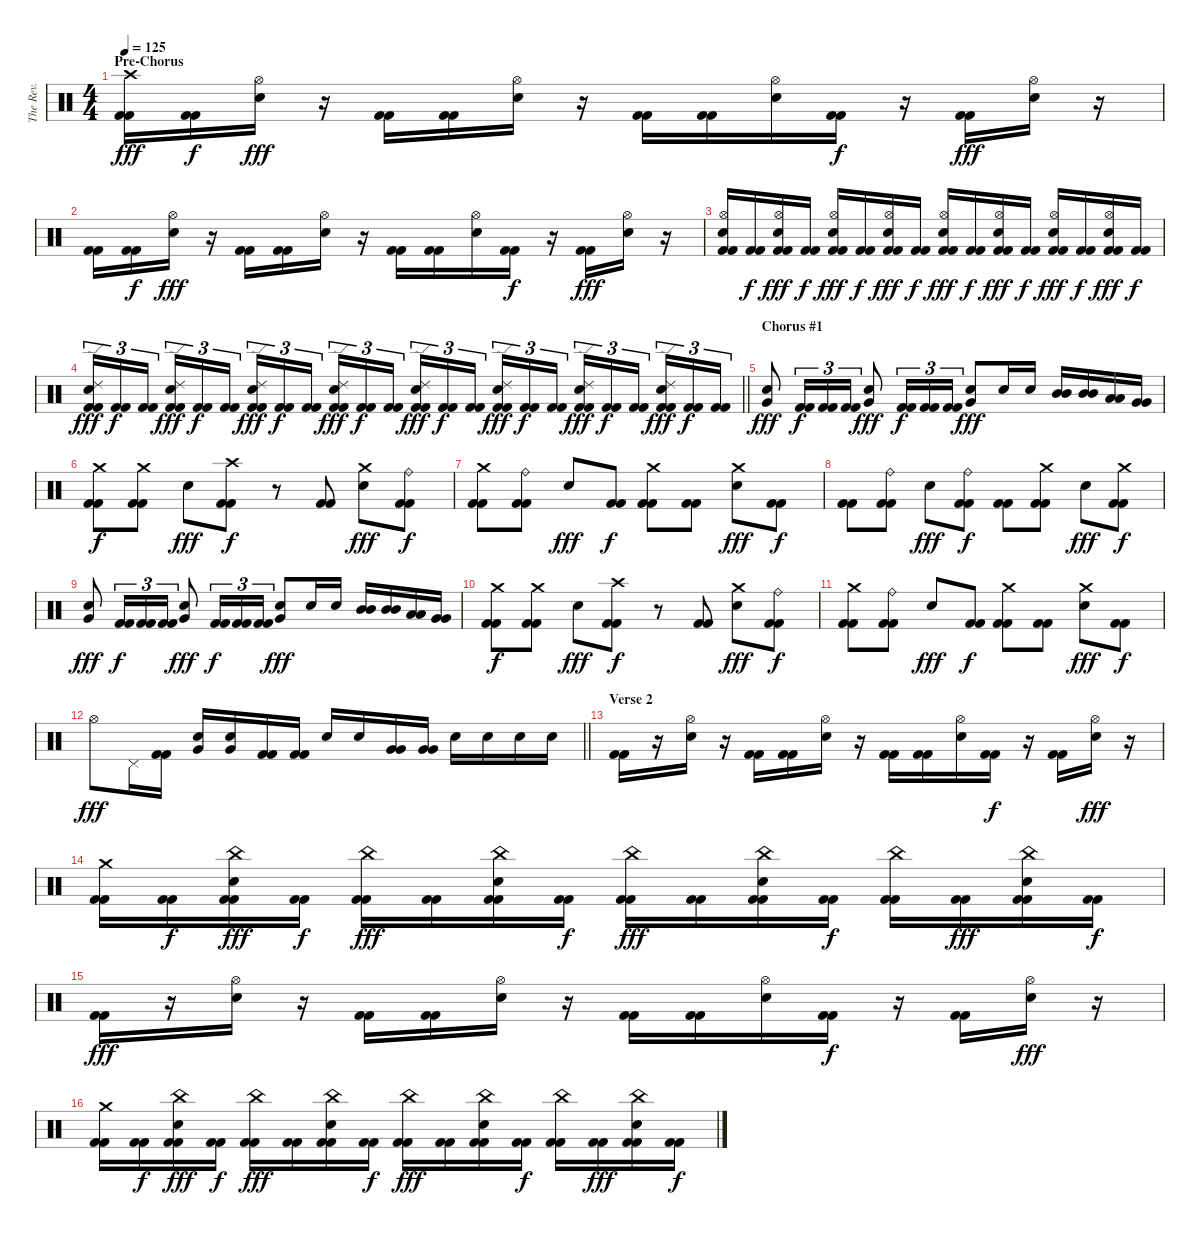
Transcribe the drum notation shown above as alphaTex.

\track ("The Rev." "The Rev.") {instrument percussion}
\staff {score}
\articulation defaults
\ts (4 4)
\section ("" "Pre-Chorus")
\tempo 125
\clef neutral
\ks c
("Crash high (hit)" "Kick (hit) 2" "Kick (hit) 2").16{dy fff} ("Kick (hit) 2" "Kick (hit) 2").16{dy f} ("Hi-Hat (open)" "Electric Snare (hit)").16{dy fff} r.16 ("Kick (hit) 2" "Kick (hit) 2").16 ("Kick (hit) 2" "Kick (hit) 2").16 ("Hi-Hat (open)" "Electric Snare (hit)").16 r.16 ("Kick (hit) 2" "Kick (hit) 2").16 ("Kick (hit) 2" "Kick (hit) 2").16 ("Hi-Hat (open)" "Electric Snare (hit)").16 ("Kick (hit) 2" "Kick (hit) 2").16{dy f} r.16 ("Kick (hit) 2" "Kick (hit) 2").16{dy fff} ("Hi-Hat (open)" "Electric Snare (hit)").16 r.16 |
("Kick (hit) 2" "Kick (hit) 2").16 ("Kick (hit) 2" "Kick (hit) 2").16{dy f} ("Hi-Hat (open)" "Electric Snare (hit)").16{dy fff} r.16 ("Kick (hit) 2" "Kick (hit) 2").16 ("Kick (hit) 2" "Kick (hit) 2").16 ("Hi-Hat (open)" "Electric Snare (hit)").16 r.16 ("Kick (hit) 2" "Kick (hit) 2").16 ("Kick (hit) 2" "Kick (hit) 2").16 ("Hi-Hat (open)" "Electric Snare (hit)").16 ("Kick (hit) 2" "Kick (hit) 2").16{dy f} r.16 ("Kick (hit) 2" "Kick (hit) 2").16{dy fff} ("Hi-Hat (open)" "Electric Snare (hit)").16 r.16 |
("Hi-Hat (open)" "Electric Snare (hit)" "Kick (hit) 2" "Kick (hit) 2").16 ("Kick (hit) 2" "Kick (hit) 2").16{dy f} ("Hi-Hat (open)" "Electric Snare (hit)" "Kick (hit) 2" "Kick (hit) 2").16{dy fff} ("Kick (hit) 2" "Kick (hit) 2").16{dy f} ("Hi-Hat (open)" "Electric Snare (hit)" "Kick (hit) 2" "Kick (hit) 2").16{dy fff} ("Kick (hit) 2" "Kick (hit) 2").16{dy f} ("Hi-Hat (open)" "Electric Snare (hit)" "Kick (hit) 2" "Kick (hit) 2").16{dy fff} ("Kick (hit) 2" "Kick (hit) 2").16{dy f} ("Hi-Hat (open)" "Electric Snare (hit)" "Kick (hit) 2" "Kick (hit) 2").16{dy fff} ("Kick (hit) 2" "Kick (hit) 2").16{dy f} ("Hi-Hat (open)" "Electric Snare (hit)" "Kick (hit) 2" "Kick (hit) 2").16{dy fff} ("Kick (hit) 2" "Kick (hit) 2").16{dy f} ("Hi-Hat (open)" "Electric Snare (hit)" "Kick (hit) 2" "Kick (hit) 2").16{dy fff} ("Kick (hit) 2" "Kick (hit) 2").16{dy f} ("Hi-Hat (open)" "Electric Snare (hit)" "Kick (hit) 2" "Kick (hit) 2").16{dy fff} ("Kick (hit) 2" "Kick (hit) 2").16{dy f} |
\barLineRight lightlight
("Ride (edge) 2" "Electric Snare (hit)" "Kick (hit) 2" "Kick (hit) 2").16{tu (3 2) dy fff} ("Kick (hit) 2" "Kick (hit) 2").16{tu (3 2) dy f} ("Kick (hit) 2" "Kick (hit) 2").16{tu (3 2) beam splitsecondary} ("Ride (edge) 2" "Electric Snare (hit)" "Kick (hit) 2" "Kick (hit) 2").16{tu (3 2) dy fff} ("Kick (hit) 2" "Kick (hit) 2").16{tu (3 2) dy f} ("Kick (hit) 2" "Kick (hit) 2").16{tu (3 2)} ("Ride (edge) 2" "Electric Snare (hit)" "Kick (hit) 2" "Kick (hit) 2").16{tu (3 2) dy fff} ("Kick (hit) 2" "Kick (hit) 2").16{tu (3 2) dy f} ("Kick (hit) 2" "Kick (hit) 2").16{tu (3 2) beam splitsecondary} ("Ride (edge) 2" "Electric Snare (hit)" "Kick (hit) 2" "Kick (hit) 2").16{tu (3 2) dy fff} ("Kick (hit) 2" "Kick (hit) 2").16{tu (3 2) dy f} ("Kick (hit) 2" "Kick (hit) 2").16{tu (3 2)} ("Ride (edge) 2" "Electric Snare (hit)" "Kick (hit) 2" "Kick (hit) 2").16{tu (3 2) dy fff} ("Kick (hit) 2" "Kick (hit) 2").16{tu (3 2) dy f} ("Kick (hit) 2" "Kick (hit) 2").16{tu (3 2) beam splitsecondary} ("Ride (edge) 2" "Electric Snare (hit)" "Kick (hit) 2" "Kick (hit) 2").16{tu (3 2) dy fff} ("Kick (hit) 2" "Kick (hit) 2").16{tu (3 2) dy f} ("Kick (hit) 2" "Kick (hit) 2").16{tu (3 2)} ("Ride (edge) 2" "Electric Snare (hit)" "Kick (hit) 2" "Kick (hit) 2").16{tu (3 2) dy fff} ("Kick (hit) 2" "Kick (hit) 2").16{tu (3 2) dy f} ("Kick (hit) 2" "Kick (hit) 2").16{tu (3 2) beam splitsecondary} ("Ride (edge) 2" "Electric Snare (hit)" "Kick (hit) 2" "Kick (hit) 2").16{tu (3 2) dy fff} ("Kick (hit) 2" "Kick (hit) 2").16{tu (3 2) dy f} ("Kick (hit) 2" "Kick (hit) 2").16{tu (3 2)} |
\section ("" "Chorus #1")
("Electric Snare (hit)" "Very Low Tom (hit)").8{dy fff} ("Kick (hit) 2" "Kick (hit) 2").16{tu (3 2) dy f} ("Kick (hit) 2" "Kick (hit) 2").16{tu (3 2)} ("Kick (hit) 2" "Kick (hit) 2").16{tu (3 2)} ("Electric Snare (hit)" "Very Low Tom (hit)").8{dy fff} ("Kick (hit) 2" "Kick (hit) 2").16{tu (3 2) dy f} ("Kick (hit) 2" "Kick (hit) 2").16{tu (3 2)} ("Kick (hit) 2" "Kick (hit) 2").16{tu (3 2)} ("Electric Snare (hit)" "Very Low Tom (hit)").8{dy fff} "Electric Snare (hit)".16 "Electric Snare (hit)".16 ("Mid Tom (hit)" "Mid Tom (hit)").16 ("Mid Tom (hit)" "Mid Tom (hit)").16 ("Low Tom (hit)" "Low Tom (hit)").16 ("Very Low Tom (hit)" "Very Low Tom (hit)").16 |
("Crash medium (hit)" "Kick (hit) 2" "Kick (hit) 2").8{dy f} ("Crash medium (hit)" "Kick (hit) 2" "Kick (hit) 2").8 "Electric Snare (hit)".8{dy fff} ("Crash high (hit)" "Kick (hit) 2" "Kick (hit) 2").8{dy f} r.8 ("Kick (hit) 2" "Kick (hit) 2").8 ("Crash medium (hit)" "Electric Snare (hit)").8{dy fff} ("Ride (bell)" "Kick (hit) 2" "Kick (hit) 2").8{dy f} |
("Crash medium (hit)" "Kick (hit) 2" "Kick (hit) 2").8 ("Ride (bell)" "Kick (hit) 2" "Kick (hit) 2").8 "Electric Snare (hit)".8{dy fff} ("Kick (hit) 2" "Kick (hit) 2").8{dy f} ("Crash medium (hit)" "Kick (hit) 2" "Kick (hit) 2").8 ("Kick (hit) 2" "Kick (hit) 2").8 ("Crash medium (hit)" "Electric Snare (hit)").8{dy fff} ("Kick (hit) 2" "Kick (hit) 2").8{dy f} |
("Kick (hit) 2" "Kick (hit) 2").8 ("Ride (bell)" "Kick (hit) 2" "Kick (hit) 2").8 "Electric Snare (hit)".8{dy fff} ("Ride (bell)" "Kick (hit) 2" "Kick (hit) 2").8{dy f} ("Kick (hit) 2" "Kick (hit) 2").8 ("Crash medium (hit)" "Kick (hit) 2" "Kick (hit) 2").8 "Electric Snare (hit)".8{dy fff} ("Crash medium (hit)" "Kick (hit) 2" "Kick (hit) 2").8{dy f} |
("Electric Snare (hit)" "Very Low Tom (hit)").8{dy fff} ("Kick (hit) 2" "Kick (hit) 2").16{tu (3 2) dy f} ("Kick (hit) 2" "Kick (hit) 2").16{tu (3 2)} ("Kick (hit) 2" "Kick (hit) 2").16{tu (3 2)} ("Electric Snare (hit)" "Very Low Tom (hit)").8{dy fff} ("Kick (hit) 2" "Kick (hit) 2").16{tu (3 2) dy f} ("Kick (hit) 2" "Kick (hit) 2").16{tu (3 2)} ("Kick (hit) 2" "Kick (hit) 2").16{tu (3 2)} ("Electric Snare (hit)" "Very Low Tom (hit)").8{dy fff} "Electric Snare (hit)".16 "Electric Snare (hit)".16 ("Mid Tom (hit)" "Mid Tom (hit)").16 ("Mid Tom (hit)" "Mid Tom (hit)").16 ("Low Tom (hit)" "Low Tom (hit)").16 ("Very Low Tom (hit)" "Very Low Tom (hit)").16 |
("Crash medium (hit)" "Kick (hit) 2" "Kick (hit) 2").8{dy f} ("Crash medium (hit)" "Kick (hit) 2" "Kick (hit) 2").8 "Electric Snare (hit)".8{dy fff} ("Crash high (hit)" "Kick (hit) 2" "Kick (hit) 2").8{dy f} r.8 ("Kick (hit) 2" "Kick (hit) 2").8 ("Crash medium (hit)" "Electric Snare (hit)").8{dy fff} ("Ride (bell)" "Kick (hit) 2" "Kick (hit) 2").8{dy f} |
("Crash medium (hit)" "Kick (hit) 2" "Kick (hit) 2").8 ("Ride (bell)" "Kick (hit) 2" "Kick (hit) 2").8 "Electric Snare (hit)".8{dy fff} ("Kick (hit) 2" "Kick (hit) 2").8{dy f} ("Crash medium (hit)" "Kick (hit) 2" "Kick (hit) 2").8 ("Kick (hit) 2" "Kick (hit) 2").8 ("Crash medium (hit)" "Electric Snare (hit)").8{dy fff} ("Kick (hit) 2" "Kick (hit) 2").8{dy f} |
\barLineRight lightlight "Hi-Hat (open)".8{dy fff} "Pedal Hi-Hat (hit)".16
("Kick (hit) 2" "Kick (hit) 2").16 ("Very Low Tom (hit)" "Electric Snare (hit)").16 ("Very Low Tom (hit)" "Electric Snare (hit)").16 ("Kick (hit) 2" "Kick (hit) 2").16 ("Kick (hit) 2" "Kick (hit) 2").16 "Electric Snare (hit)".16 "Electric Snare (hit)".16 ("Very Low Tom (hit)" "Very Low Tom (hit)").16 ("Very Low Tom (hit)" "Very Low Tom (hit)").16 "Electric Snare (hit)".16 "Electric Snare (hit)".16 "Electric Snare (hit)".16 "Electric Snare (hit)".16 |
\section ("" "Verse 2")
("Kick (hit) 2" "Kick (hit) 2").16 r.16 ("Hi-Hat (open)" "Electric Snare (hit)").16 r.16 ("Kick (hit) 2" "Kick (hit) 2").16 ("Kick (hit) 2" "Kick (hit) 2").16 ("Hi-Hat (open)" "Electric Snare (hit)").16 r.16 ("Kick (hit) 2" "Kick (hit) 2").16 ("Kick (hit) 2" "Kick (hit) 2").16 ("Hi-Hat (open)" "Electric Snare (hit)").16 ("Kick (hit) 2" "Kick (hit) 2").16{dy f} r.16 ("Kick (hit) 2" "Kick (hit) 2").16 ("Hi-Hat (open)" "Electric Snare (hit)").16{dy fff} r.16 |
("Crash medium (hit)" "Kick (hit) 2" "Kick (hit) 2").16 ("Kick (hit) 2" "Kick (hit) 2").16{dy f} ("China (hit)" "Electric Snare (hit)" "Kick (hit) 2" "Kick (hit) 2").16{dy fff} ("Kick (hit) 2" "Kick (hit) 2").16{dy f} ("China (hit)" "Kick (hit) 2" "Kick (hit) 2").16{dy fff} ("Kick (hit) 2" "Kick (hit) 2").16 ("China (hit)" "Electric Snare (hit)" "Kick (hit) 2" "Kick (hit) 2").16 ("Kick (hit) 2" "Kick (hit) 2").16{dy f} ("China (hit)" "Kick (hit) 2" "Kick (hit) 2").16{dy fff} ("Kick (hit) 2" "Kick (hit) 2").16 ("China (hit)" "Electric Snare (hit)" "Kick (hit) 2" "Kick (hit) 2").16 ("Kick (hit) 2" "Kick (hit) 2").16{dy f} ("China (hit)" "Kick (hit) 2" "Kick (hit) 2").16 ("Kick (hit) 2" "Kick (hit) 2").16{dy fff} ("China (hit)" "Electric Snare (hit)" "Kick (hit) 2" "Kick (hit) 2").16 ("Kick (hit) 2" "Kick (hit) 2").16{dy f} |
("Kick (hit) 2" "Kick (hit) 2").16{dy fff} r.16 ("Hi-Hat (open)" "Electric Snare (hit)").16 r.16 ("Kick (hit) 2" "Kick (hit) 2").16 ("Kick (hit) 2" "Kick (hit) 2").16 ("Hi-Hat (open)" "Electric Snare (hit)").16 r.16 ("Kick (hit) 2" "Kick (hit) 2").16 ("Kick (hit) 2" "Kick (hit) 2").16 ("Hi-Hat (open)" "Electric Snare (hit)").16 ("Kick (hit) 2" "Kick (hit) 2").16{dy f} r.16 ("Kick (hit) 2" "Kick (hit) 2").16 ("Hi-Hat (open)" "Electric Snare (hit)").16{dy fff} r.16 |
("Crash medium (hit)" "Kick (hit) 2" "Kick (hit) 2").16 ("Kick (hit) 2" "Kick (hit) 2").16{dy f} ("China (hit)" "Electric Snare (hit)" "Kick (hit) 2" "Kick (hit) 2").16{dy fff} ("Kick (hit) 2" "Kick (hit) 2").16{dy f} ("China (hit)" "Kick (hit) 2" "Kick (hit) 2").16{dy fff} ("Kick (hit) 2" "Kick (hit) 2").16 ("China (hit)" "Electric Snare (hit)" "Kick (hit) 2" "Kick (hit) 2").16 ("Kick (hit) 2" "Kick (hit) 2").16{dy f} ("China (hit)" "Kick (hit) 2" "Kick (hit) 2").16{dy fff} ("Kick (hit) 2" "Kick (hit) 2").16 ("China (hit)" "Electric Snare (hit)" "Kick (hit) 2" "Kick (hit) 2").16 ("Kick (hit) 2" "Kick (hit) 2").16{dy f} ("China (hit)" "Kick (hit) 2" "Kick (hit) 2").16 ("Kick (hit) 2" "Kick (hit) 2").16{dy fff} ("China (hit)" "Electric Snare (hit)" "Kick (hit) 2" "Kick (hit) 2").16 ("Kick (hit) 2" "Kick (hit) 2").16{dy f}
